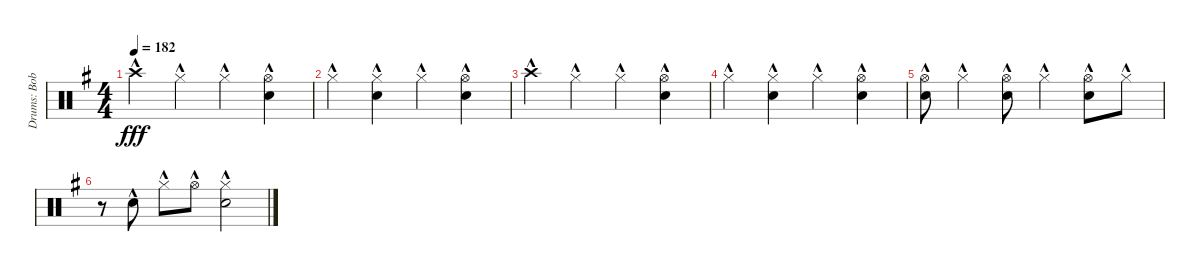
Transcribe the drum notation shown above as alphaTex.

\track ("Drums: Bobby" "Drums: Bob") {instrument percussion}
\staff {score}
\articulation defaults
\ts (4 4)
\tempo 182
\clef neutral
\ks g "Crash high (hit)"{hac}.4{dy fff} "Hi-Hat (closed)"{hac}.4 "Hi-Hat (closed)"{hac}.4
("Hi-Hat (open)"{hac} "Snare (hit) 2"{hac}).4 |
"Hi-Hat (closed)"{hac}.4 ("Hi-Hat (closed)"{hac} "Snare (hit) 2"{hac}).4 "Hi-Hat (closed)"{hac}.4 ("Hi-Hat (open)"{hac} "Snare (hit) 2"{hac}).4 |
"Crash high (hit)"{hac}.4 "Hi-Hat (closed)"{hac}.4 "Hi-Hat (closed)"{hac}.4 ("Hi-Hat (open)"{hac} "Snare (hit) 2"{hac}).4 |
"Hi-Hat (closed)"{hac}.4 ("Hi-Hat (closed)"{hac} "Snare (hit) 2"{hac}).4 "Hi-Hat (closed)"{hac}.4 ("Hi-Hat (open)"{hac} "Snare (hit) 2"{hac}).4 |
("Hi-Hat (open)"{hac} "Snare (hit) 2"{hac}).8 "Hi-Hat (closed)"{hac}.4 ("Hi-Hat (open)"{hac} "Snare (hit) 2"{hac}).8 "Hi-Hat (closed)"{hac}.4 ("Hi-Hat (open)"{hac} "Snare (hit) 2"{hac}).8 "Hi-Hat (closed)"{hac}.8 |
r.8 "Snare (hit) 2"{hac}.8 "Hi-Hat (closed)"{hac}.8 "Hi-Hat (open)"{hac}.8 ("Hi-Hat (closed)"{hac} "Snare (hit) 2"{hac}).2
